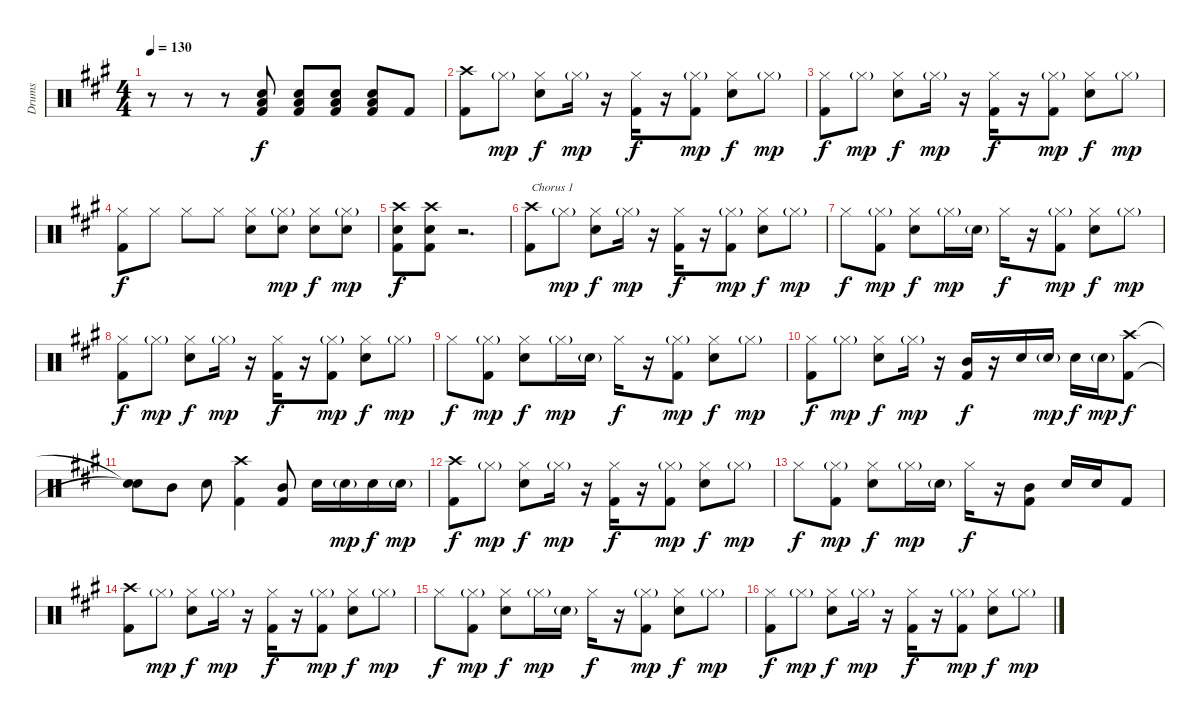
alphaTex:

\track ("Drums" "Drums") {instrument percussion}
\staff {score}
\articulation defaults
\ts (4 4)
\tempo 130
\clef neutral
\ks a
r.8{dy f} r.8 r.8 ("Electric Snare (hit)" "Low Floor Tom (hit)" "Kick (hit) 2").8 ("Electric Snare (hit)" "Low Floor Tom (hit)" "Kick (hit) 2").8 ("Electric Snare (hit)" "Low Floor Tom (hit)" "Kick (hit) 2").8 ("Electric Snare (hit)" "Low Floor Tom (hit)" "Kick (hit) 2").8 "Kick (hit) 2".8 |
("Crash high (hit)" "Kick (hit) 2").8 "Hi-Hat (closed)"{g}.8{dy mp} ("Hi-Hat (closed)" "Electric Snare (hit)").8{dy f} "Hi-Hat (closed)"{g}.16{dy mp} r.16 ("Hi-Hat (closed)" "Kick (hit) 2").16{dy f} r.16 ("Hi-Hat (closed)"{g} "Kick (hit) 2").8{dy mp} ("Hi-Hat (closed)" "Electric Snare (hit)").8{dy f} "Hi-Hat (closed)"{g}.8{dy mp} |
("Hi-Hat (closed)" "Kick (hit) 2").8{dy f} "Hi-Hat (closed)"{g}.8{dy mp} ("Hi-Hat (closed)" "Electric Snare (hit)").8{dy f} "Hi-Hat (closed)"{g}.16{dy mp} r.16 ("Hi-Hat (closed)" "Kick (hit) 2").16{dy f} r.16 ("Hi-Hat (closed)"{g} "Kick (hit) 2").8{dy mp} ("Hi-Hat (closed)" "Electric Snare (hit)").8{dy f} "Hi-Hat (closed)"{g}.8{dy mp} |
("Hi-Hat (closed)" "Kick (hit) 2").8{dy f} "Hi-Hat (closed)".8 "Hi-Hat (closed)".8 "Hi-Hat (closed)".8 ("Electric Snare (hit)" "Hi-Hat (closed)").8 ("Electric Snare (hit)" "Hi-Hat (closed)"{g}).8{dy mp} ("Hi-Hat (closed)" "Electric Snare (hit)").8{dy f} ("Electric Snare (hit)" "Hi-Hat (closed)"{g}).8{dy mp} |
("Crash high (hit)" "Electric Snare (hit)" "Kick (hit) 2").8{dy f} ("Crash high (hit)" "Electric Snare (hit)" "Kick (hit) 2").8 r.2{d} |
("Crash high (hit)" "Kick (hit) 2").8{txt "Chorus 1"} "Hi-Hat (closed)"{g}.8{dy mp} ("Hi-Hat (closed)" "Electric Snare (hit)").8{dy f} "Hi-Hat (closed)"{g}.16{dy mp} r.16 ("Hi-Hat (closed)" "Kick (hit) 2").16{dy f} r.16 ("Hi-Hat (closed)"{g} "Kick (hit) 2").8{dy mp} ("Hi-Hat (closed)" "Electric Snare (hit)").8{dy f} "Hi-Hat (closed)"{g}.8{dy mp} |
"Hi-Hat (closed)".8{dy f} ("Hi-Hat (closed)"{g} "Kick (hit) 2").8{dy mp} ("Hi-Hat (closed)" "Electric Snare (hit)").8{dy f} "Hi-Hat (closed)"{g}.16{dy mp} "Electric Snare (hit)"{g}.16 "Hi-Hat (closed)".16{dy f} r.16 ("Hi-Hat (closed)"{g} "Kick (hit) 2").8{dy mp} ("Hi-Hat (closed)" "Electric Snare (hit)").8{dy f} "Hi-Hat (closed)"{g}.8{dy mp} |
("Hi-Hat (closed)" "Kick (hit) 2").8{dy f} "Hi-Hat (closed)"{g}.8{dy mp} ("Hi-Hat (closed)" "Electric Snare (hit)").8{dy f} "Hi-Hat (closed)"{g}.16{dy mp} r.16 ("Hi-Hat (closed)" "Kick (hit) 2").16{dy f} r.16 ("Hi-Hat (closed)"{g} "Kick (hit) 2").8{dy mp} ("Hi-Hat (closed)" "Electric Snare (hit)").8{dy f} "Hi-Hat (closed)"{g}.8{dy mp} |
"Hi-Hat (closed)".8{dy f} ("Hi-Hat (closed)"{g} "Kick (hit) 2").8{dy mp} ("Hi-Hat (closed)" "Electric Snare (hit)").8{dy f} "Hi-Hat (closed)"{g}.16{dy mp} "Electric Snare (hit)"{g}.16 "Hi-Hat (closed)".16{dy f} r.16 ("Hi-Hat (closed)"{g} "Kick (hit) 2").8{dy mp} ("Hi-Hat (closed)" "Electric Snare (hit)").8{dy f} "Hi-Hat (closed)"{g}.8{dy mp} |
("Hi-Hat (closed)" "Kick (hit) 2").8{dy f} "Hi-Hat (closed)"{g}.8{dy mp} ("Hi-Hat (closed)" "Electric Snare (hit)").8{dy f} "Hi-Hat (closed)"{g}.16{dy mp} r.16 ("Mid Tom (hit)" "Kick (hit) 2").16{dy f} r.16 "Electric Snare (hit)".16 "Electric Snare (hit)"{g}.16{dy mp} "Electric Snare (hit)".16{dy f} "Electric Snare (hit)"{g}.16{dy mp} ("Crash high (hit)" "Kick (hit) 2").8{dy f} |
("Snare (hit)"{t} "Snare (hit)"{t}).8 "Mid Tom (hit)".8 "Electric Snare (hit)".8 ("Crash high (hit)" "Kick (hit) 2").4 ("Mid Tom (hit)" "Kick (hit) 2").8 "Electric Snare (hit)".16 "Electric Snare (hit)"{g}.16{dy mp} "Electric Snare (hit)".16{dy f} "Electric Snare (hit)"{g}.16{dy mp} |
("Crash high (hit)" "Kick (hit) 2").8{dy f} "Hi-Hat (closed)"{g}.8{dy mp} ("Hi-Hat (closed)" "Electric Snare (hit)").8{dy f} "Hi-Hat (closed)"{g}.16{dy mp} r.16 ("Hi-Hat (closed)" "Kick (hit) 2").16{dy f} r.16 ("Hi-Hat (closed)"{g} "Kick (hit) 2").8{dy mp} ("Hi-Hat (closed)" "Electric Snare (hit)").8{dy f} "Hi-Hat (closed)"{g}.8{dy mp} |
"Hi-Hat (closed)".8{dy f} ("Hi-Hat (closed)"{g} "Kick (hit) 2").8{dy mp} ("Hi-Hat (closed)" "Electric Snare (hit)").8{dy f} "Hi-Hat (closed)"{g}.16{dy mp} "Electric Snare (hit)"{g}.16 "Hi-Hat (closed)".16{dy f} r.16 ("Mid Tom (hit)" "Kick (hit) 2").8 "Electric Snare (hit)".16 "Electric Snare (hit)".16 "Kick (hit) 2".8 |
("Crash high (hit)" "Kick (hit) 2").8 "Hi-Hat (closed)"{g}.8{dy mp} ("Hi-Hat (closed)" "Electric Snare (hit)").8{dy f} "Hi-Hat (closed)"{g}.16{dy mp} r.16 ("Hi-Hat (closed)" "Kick (hit) 2").16{dy f} r.16 ("Hi-Hat (closed)"{g} "Kick (hit) 2").8{dy mp} ("Hi-Hat (closed)" "Electric Snare (hit)").8{dy f} "Hi-Hat (closed)"{g}.8{dy mp} |
"Hi-Hat (closed)".8{dy f} ("Hi-Hat (closed)"{g} "Kick (hit) 2").8{dy mp} ("Hi-Hat (closed)" "Electric Snare (hit)").8{dy f} "Hi-Hat (closed)"{g}.16{dy mp} "Electric Snare (hit)"{g}.16 "Hi-Hat (closed)".16{dy f} r.16 ("Hi-Hat (closed)"{g} "Kick (hit) 2").8{dy mp} ("Hi-Hat (closed)" "Electric Snare (hit)").8{dy f} "Hi-Hat (closed)"{g}.8{dy mp} |
("Hi-Hat (closed)" "Kick (hit) 2").8{dy f} "Hi-Hat (closed)"{g}.8{dy mp} ("Hi-Hat (closed)" "Electric Snare (hit)").8{dy f} "Hi-Hat (closed)"{g}.16{dy mp} r.16 ("Hi-Hat (closed)" "Kick (hit) 2").16{dy f} r.16 ("Hi-Hat (closed)"{g} "Kick (hit) 2").8{dy mp} ("Hi-Hat (closed)" "Electric Snare (hit)").8{dy f} "Hi-Hat (closed)"{g}.8{dy mp}
